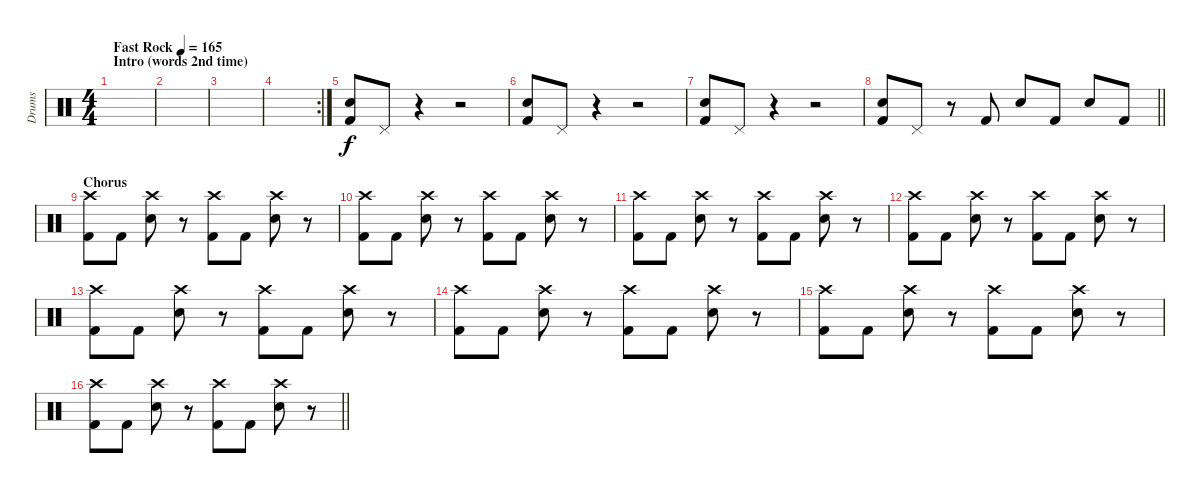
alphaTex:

\track ("Drums" "Drums") {instrument percussion}
\staff {score}
\articulation defaults
\ts (4 4)
\section ("" "Intro (words 2nd time)")
\tempo (165 "Fast Rock")
\clef neutral
\ks c
|
|
|
\rc 2
|
("Electric Snare (hit)" "Kick (hit) 2").8 "Pedal Hi-Hat (hit)".8 r.4 r.2 |
("Electric Snare (hit)" "Kick (hit) 2").8 "Pedal Hi-Hat (hit)".8 r.4 r.2 |
("Electric Snare (hit)" "Kick (hit) 2").8 "Pedal Hi-Hat (hit)".8 r.4 r.2 |
\barLineRight lightlight
("Electric Snare (hit)" "Kick (hit) 2").8 "Pedal Hi-Hat (hit)".8 r.8 "Kick (hit) 2".8 "Electric Snare (hit)".8 "Kick (hit) 2".8 "Electric Snare (hit)".8 "Kick (hit) 2".8 |
\section ("" "Chorus")
("Crash high (hit)" "Kick (hit) 2").8 "Kick (hit) 2".8 ("Crash high (hit)" "Electric Snare (hit)").8 r.8 ("Crash high (hit)" "Kick (hit) 2").8 "Kick (hit) 2".8 ("Crash high (hit)" "Electric Snare (hit)").8 r.8 |
("Crash high (hit)" "Kick (hit) 2").8 "Kick (hit) 2".8 ("Crash high (hit)" "Electric Snare (hit)").8 r.8 ("Crash high (hit)" "Kick (hit) 2").8 "Kick (hit) 2".8 ("Crash high (hit)" "Electric Snare (hit)").8 r.8 |
("Crash high (hit)" "Kick (hit) 2").8 "Kick (hit) 2".8 ("Crash high (hit)" "Electric Snare (hit)").8 r.8 ("Crash high (hit)" "Kick (hit) 2").8 "Kick (hit) 2".8 ("Crash high (hit)" "Electric Snare (hit)").8 r.8 |
("Crash high (hit)" "Kick (hit) 2").8 "Kick (hit) 2".8 ("Crash high (hit)" "Electric Snare (hit)").8 r.8 ("Crash high (hit)" "Kick (hit) 2").8 "Kick (hit) 2".8 ("Crash high (hit)" "Electric Snare (hit)").8 r.8 |
("Crash high (hit)" "Kick (hit) 2").8 "Kick (hit) 2".8 ("Crash high (hit)" "Electric Snare (hit)").8 r.8 ("Crash high (hit)" "Kick (hit) 2").8 "Kick (hit) 2".8 ("Crash high (hit)" "Electric Snare (hit)").8 r.8 |
("Crash high (hit)" "Kick (hit) 2").8 "Kick (hit) 2".8 ("Crash high (hit)" "Electric Snare (hit)").8 r.8 ("Crash high (hit)" "Kick (hit) 2").8 "Kick (hit) 2".8 ("Crash high (hit)" "Electric Snare (hit)").8 r.8 |
("Crash high (hit)" "Kick (hit) 2").8 "Kick (hit) 2".8 ("Crash high (hit)" "Electric Snare (hit)").8 r.8 ("Crash high (hit)" "Kick (hit) 2").8 "Kick (hit) 2".8 ("Crash high (hit)" "Electric Snare (hit)").8 r.8 |
\barLineRight lightlight
("Crash high (hit)" "Kick (hit) 2").8 "Kick (hit) 2".8 ("Crash high (hit)" "Electric Snare (hit)").8 r.8 ("Crash high (hit)" "Kick (hit) 2").8 "Kick (hit) 2".8 ("Crash high (hit)" "Electric Snare (hit)").8 r.8
